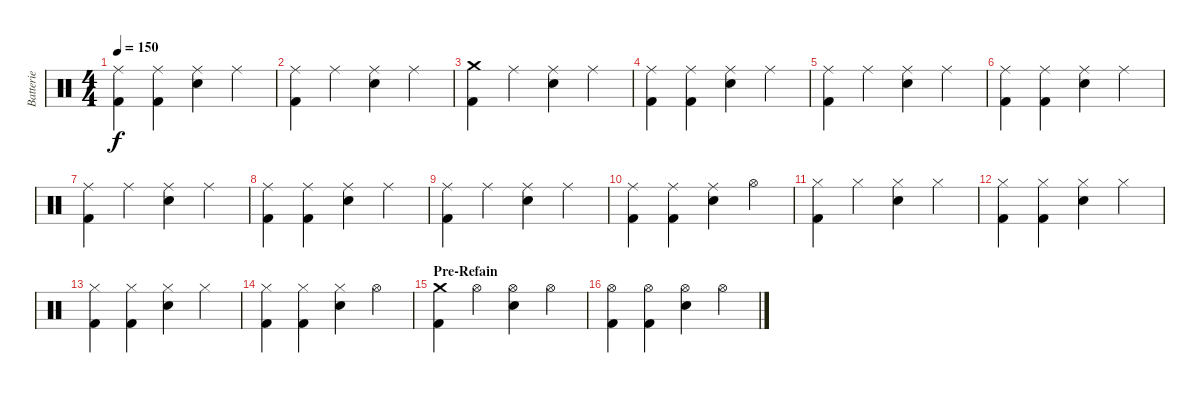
\track ("Batterie" "Batterie") {instrument percussion}
\staff {score}
\articulation defaults
\ts (4 4)
\tempo 150
\clef neutral
\ks c
("Ride (middle)" "Kick (hit) 2").4{dy f} ("Ride (middle)" "Kick (hit) 2").4 ("Ride (middle)" "Electric Snare (hit)").4 "Ride (middle)".4 |
("Ride (middle)" "Kick (hit) 2").4 "Ride (middle)".4 ("Ride (middle)" "Electric Snare (hit)").4 "Ride (middle)".4 |
("Crash medium (hit)" "Kick (hit) 2").4 "Ride (middle)".4 ("Ride (middle)" "Electric Snare (hit)").4 "Ride (middle)".4 |
("Ride (middle)" "Kick (hit) 2").4 ("Ride (middle)" "Kick (hit) 2").4 ("Ride (middle)" "Electric Snare (hit)").4 "Ride (middle)".4 |
("Ride (middle)" "Kick (hit) 2").4 "Ride (middle)".4 ("Ride (middle)" "Electric Snare (hit)").4 "Ride (middle)".4 |
("Ride (middle)" "Kick (hit) 2").4 ("Ride (middle)" "Kick (hit) 2").4 ("Ride (middle)" "Electric Snare (hit)").4 "Ride (middle)".4 |
("Ride (middle)" "Kick (hit) 2").4 "Ride (middle)".4 ("Ride (middle)" "Electric Snare (hit)").4 "Ride (middle)".4 |
("Ride (middle)" "Kick (hit) 2").4 ("Ride (middle)" "Kick (hit) 2").4 ("Ride (middle)" "Electric Snare (hit)").4 "Ride (middle)".4 |
("Ride (middle)" "Kick (hit) 2").4 "Ride (middle)".4 ("Ride (middle)" "Electric Snare (hit)").4 "Ride (middle)".4 |
("Ride (middle)" "Kick (hit) 2").4 ("Ride (middle)" "Kick (hit) 2").4 ("Ride (middle)" "Electric Snare (hit)").4 "Hi-Hat (open)".4 |
("Hi-Hat (closed)" "Kick (hit) 2").4 "Hi-Hat (closed)".4 ("Hi-Hat (closed)" "Electric Snare (hit)").4 "Hi-Hat (closed)".4 |
("Hi-Hat (closed)" "Kick (hit) 2").4 ("Hi-Hat (closed)" "Kick (hit) 2").4 ("Hi-Hat (closed)" "Electric Snare (hit)").4 "Hi-Hat (closed)".4 |
("Hi-Hat (closed)" "Kick (hit) 2").4 ("Hi-Hat (closed)" "Kick (hit) 2").4 ("Hi-Hat (closed)" "Electric Snare (hit)").4 "Hi-Hat (closed)".4 |
("Hi-Hat (closed)" "Kick (hit) 2").4 ("Hi-Hat (closed)" "Kick (hit) 2").4 ("Hi-Hat (closed)" "Electric Snare (hit)").4 "Hi-Hat (open)".4 |
\section ("" "Pre-Refain")
("Crash medium (hit)" "Kick (hit) 2").4 "Hi-Hat (open)".4 ("Hi-Hat (open)" "Electric Snare (hit)").4 "Hi-Hat (open)".4 |
("Hi-Hat (open)" "Kick (hit) 2").4 ("Hi-Hat (open)" "Kick (hit) 2").4 ("Hi-Hat (open)" "Electric Snare (hit)").4 "Hi-Hat (open)".4
